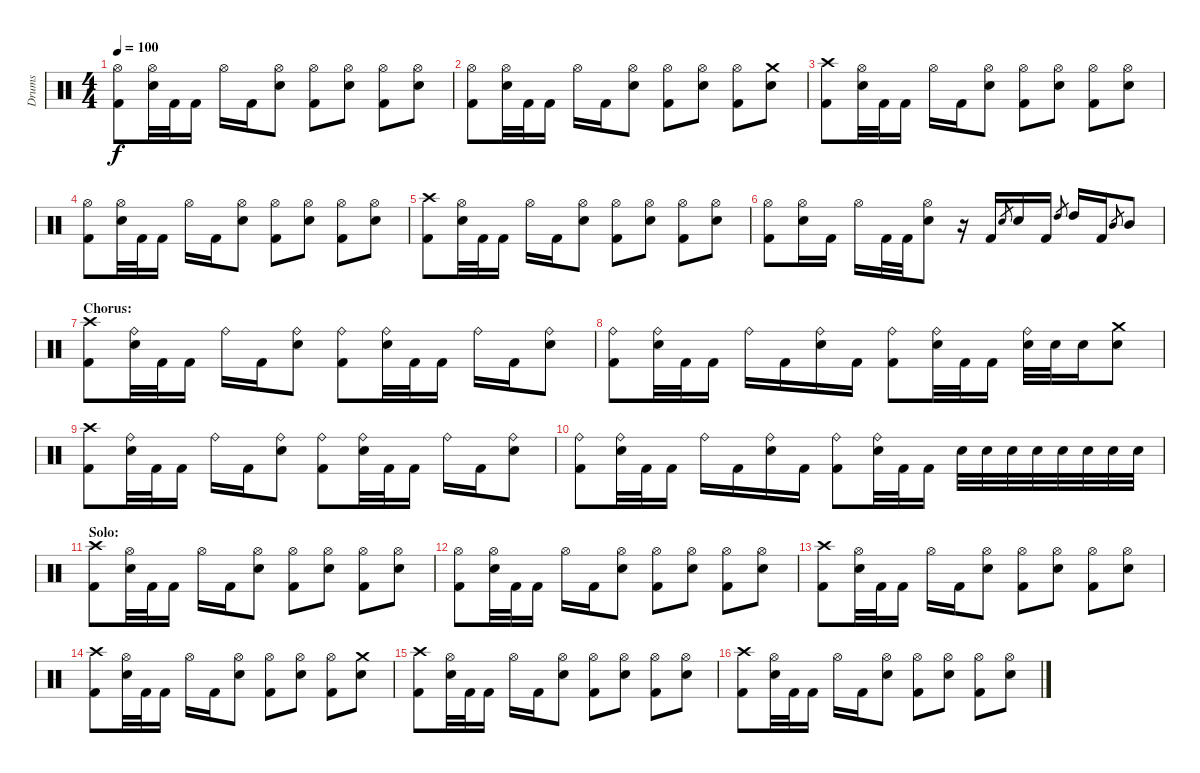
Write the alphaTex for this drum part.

\track ("Drums" "Drums") {instrument percussion}
\staff {score}
\articulation defaults
\ts (4 4)
\tempo 100
\clef neutral
\ks c
("Hi-Hat (open)" "Kick (hit) 2").8{dy f} ("Hi-Hat (open)" "Electric Snare (hit)").32 "Kick (hit) 2".32 "Kick (hit) 2".16 "Hi-Hat (open)".16 "Kick (hit) 2".16 ("Hi-Hat (open)" "Electric Snare (hit)").8 ("Hi-Hat (open)" "Kick (hit) 2").8 ("Hi-Hat (open)" "Electric Snare (hit)").8 ("Hi-Hat (open)" "Kick (hit) 2").8 ("Hi-Hat (open)" "Electric Snare (hit)").8 |
("Hi-Hat (open)" "Kick (hit) 2").8 ("Hi-Hat (open)" "Electric Snare (hit)").32 "Kick (hit) 2".32 "Kick (hit) 2".16 "Hi-Hat (open)".16 "Kick (hit) 2".16 ("Hi-Hat (open)" "Electric Snare (hit)").8 ("Hi-Hat (open)" "Kick (hit) 2").8 ("Hi-Hat (open)" "Electric Snare (hit)").8 ("Hi-Hat (open)" "Kick (hit) 2").8 ("Crash medium (hit)" "Electric Snare (hit)").8 |
("Crash high (hit)" "Kick (hit) 2").8 ("Hi-Hat (open)" "Electric Snare (hit)").32 "Kick (hit) 2".32 "Kick (hit) 2".16 "Hi-Hat (open)".16 "Kick (hit) 2".16 ("Hi-Hat (open)" "Electric Snare (hit)").8 ("Hi-Hat (open)" "Kick (hit) 2").8 ("Hi-Hat (open)" "Electric Snare (hit)").8 ("Hi-Hat (open)" "Kick (hit) 2").8 ("Hi-Hat (open)" "Electric Snare (hit)").8 |
("Hi-Hat (open)" "Kick (hit) 2").8 ("Hi-Hat (open)" "Electric Snare (hit)").32 "Kick (hit) 2".32 "Kick (hit) 2".16 "Hi-Hat (open)".16 "Kick (hit) 2".16 ("Hi-Hat (open)" "Electric Snare (hit)").8 ("Hi-Hat (open)" "Kick (hit) 2").8 ("Hi-Hat (open)" "Electric Snare (hit)").8 ("Hi-Hat (open)" "Kick (hit) 2").8 ("Hi-Hat (open)" "Electric Snare (hit)").8 |
("Crash high (hit)" "Kick (hit) 2").8 ("Hi-Hat (open)" "Electric Snare (hit)").32 "Kick (hit) 2".32 "Kick (hit) 2".16 "Hi-Hat (open)".16 "Kick (hit) 2".16 ("Hi-Hat (open)" "Electric Snare (hit)").8 ("Hi-Hat (open)" "Kick (hit) 2").8 ("Hi-Hat (open)" "Electric Snare (hit)").8 ("Hi-Hat (open)" "Kick (hit) 2").8 ("Hi-Hat (open)" "Electric Snare (hit)").8 |
("Hi-Hat (open)" "Kick (hit) 2").8 ("Hi-Hat (open)" "Electric Snare (hit)").16 "Kick (hit) 2".16 "Hi-Hat (open)".16 "Kick (hit) 2".32 "Kick (hit) 2".32 ("Hi-Hat (open)" "Electric Snare (hit)").8 r.16 "Kick (hit) 2".16 "Electric Snare (hit)".8{gr} "Electric Snare (hit)".16 "Kick (hit) 2".16 "High Tom (hit)".8{gr} "High Tom (hit)".16 "Kick (hit) 2".16 "Mid Tom (hit)".8{gr} "Mid Tom (hit)".8 |
\section ("" "Chorus:")
("Crash high (hit)" "Kick (hit) 2").8 ("Ride (bell)" "Electric Snare (hit)").32 "Kick (hit) 2".32 "Kick (hit) 2".16 "Ride (bell)".16 "Kick (hit) 2".16 ("Ride (bell)" "Electric Snare (hit)").8 ("Ride (bell)" "Kick (hit) 2").8 ("Ride (bell)" "Electric Snare (hit)").32 "Kick (hit) 2".32 "Kick (hit) 2".16 "Ride (bell)".16 "Kick (hit) 2".16 ("Ride (bell)" "Electric Snare (hit)").8 |
("Ride (bell)" "Kick (hit) 2").8 ("Ride (bell)" "Electric Snare (hit)").32 "Kick (hit) 2".32 "Kick (hit) 2".16 "Ride (bell)".16 "Kick (hit) 2".16 ("Ride (bell)" "Electric Snare (hit)").16 "Kick (hit) 2".16 ("Ride (bell)" "Kick (hit) 2").8 ("Ride (bell)" "Electric Snare (hit)").32 "Kick (hit) 2".32 "Kick (hit) 2".16 ("Ride (bell)" "Electric Snare (hit)").32 "Electric Snare (hit)".32 "Electric Snare (hit)".16 ("Crash medium (hit)" "Electric Snare (hit)").8 |
("Crash high (hit)" "Kick (hit) 2").8 ("Ride (bell)" "Electric Snare (hit)").32 "Kick (hit) 2".32 "Kick (hit) 2".16 "Ride (bell)".16 "Kick (hit) 2".16 ("Ride (bell)" "Electric Snare (hit)").8 ("Ride (bell)" "Kick (hit) 2").8 ("Ride (bell)" "Electric Snare (hit)").32 "Kick (hit) 2".32 "Kick (hit) 2".16 "Ride (bell)".16 "Kick (hit) 2".16 ("Ride (bell)" "Electric Snare (hit)").8 |
("Ride (bell)" "Kick (hit) 2").8 ("Ride (bell)" "Electric Snare (hit)").32 "Kick (hit) 2".32 "Kick (hit) 2".16 "Ride (bell)".16 "Kick (hit) 2".16 ("Ride (bell)" "Electric Snare (hit)").16 "Kick (hit) 2".16 ("Ride (bell)" "Kick (hit) 2").8 ("Ride (bell)" "Electric Snare (hit)").32 "Kick (hit) 2".32 "Kick (hit) 2".16 "Electric Snare (hit)".32 "Electric Snare (hit)".32 "Electric Snare (hit)".32 "Electric Snare (hit)".32 "Electric Snare (hit)".32 "Electric Snare (hit)".32 "Electric Snare (hit)".32 "Electric Snare (hit)".32 |
\section ("" "Solo:")
("Crash high (hit)" "Kick (hit) 2").8 ("Hi-Hat (open)" "Electric Snare (hit)").32 "Kick (hit) 2".32 "Kick (hit) 2".16 "Hi-Hat (open)".16 "Kick (hit) 2".16 ("Hi-Hat (open)" "Electric Snare (hit)").8 ("Hi-Hat (open)" "Kick (hit) 2").8 ("Hi-Hat (open)" "Electric Snare (hit)").8 ("Hi-Hat (open)" "Kick (hit) 2").8 ("Hi-Hat (open)" "Electric Snare (hit)").8 |
("Hi-Hat (open)" "Kick (hit) 2").8 ("Hi-Hat (open)" "Electric Snare (hit)").32 "Kick (hit) 2".32 "Kick (hit) 2".16 "Hi-Hat (open)".16 "Kick (hit) 2".16 ("Hi-Hat (open)" "Electric Snare (hit)").8 ("Hi-Hat (open)" "Kick (hit) 2").8 ("Hi-Hat (open)" "Electric Snare (hit)").8 ("Hi-Hat (open)" "Kick (hit) 2").8 ("Hi-Hat (open)" "Electric Snare (hit)").8 |
("Crash high (hit)" "Kick (hit) 2").8 ("Hi-Hat (open)" "Electric Snare (hit)").32 "Kick (hit) 2".32 "Kick (hit) 2".16 "Hi-Hat (open)".16 "Kick (hit) 2".16 ("Hi-Hat (open)" "Electric Snare (hit)").8 ("Hi-Hat (open)" "Kick (hit) 2").8 ("Hi-Hat (open)" "Electric Snare (hit)").8 ("Hi-Hat (open)" "Kick (hit) 2").8 ("Hi-Hat (open)" "Electric Snare (hit)").8 |
("Crash high (hit)" "Kick (hit) 2").8 ("Hi-Hat (open)" "Electric Snare (hit)").32 "Kick (hit) 2".32 "Kick (hit) 2".16 "Hi-Hat (open)".16 "Kick (hit) 2".16 ("Hi-Hat (open)" "Electric Snare (hit)").8 ("Hi-Hat (open)" "Kick (hit) 2").8 ("Hi-Hat (open)" "Electric Snare (hit)").8 ("Hi-Hat (open)" "Kick (hit) 2").8 ("Crash medium (hit)" "Electric Snare (hit)").8 |
("Crash high (hit)" "Kick (hit) 2").8 ("Hi-Hat (open)" "Electric Snare (hit)").32 "Kick (hit) 2".32 "Kick (hit) 2".16 "Hi-Hat (open)".16 "Kick (hit) 2".16 ("Hi-Hat (open)" "Electric Snare (hit)").8 ("Hi-Hat (open)" "Kick (hit) 2").8 ("Hi-Hat (open)" "Electric Snare (hit)").8 ("Hi-Hat (open)" "Kick (hit) 2").8 ("Hi-Hat (open)" "Electric Snare (hit)").8 |
("Crash high (hit)" "Kick (hit) 2").8 ("Hi-Hat (open)" "Electric Snare (hit)").32 "Kick (hit) 2".32 "Kick (hit) 2".16 "Hi-Hat (open)".16 "Kick (hit) 2".16 ("Hi-Hat (open)" "Electric Snare (hit)").8 ("Hi-Hat (open)" "Kick (hit) 2").8 ("Hi-Hat (open)" "Electric Snare (hit)").8 ("Hi-Hat (open)" "Kick (hit) 2").8 ("Hi-Hat (open)" "Electric Snare (hit)").8
